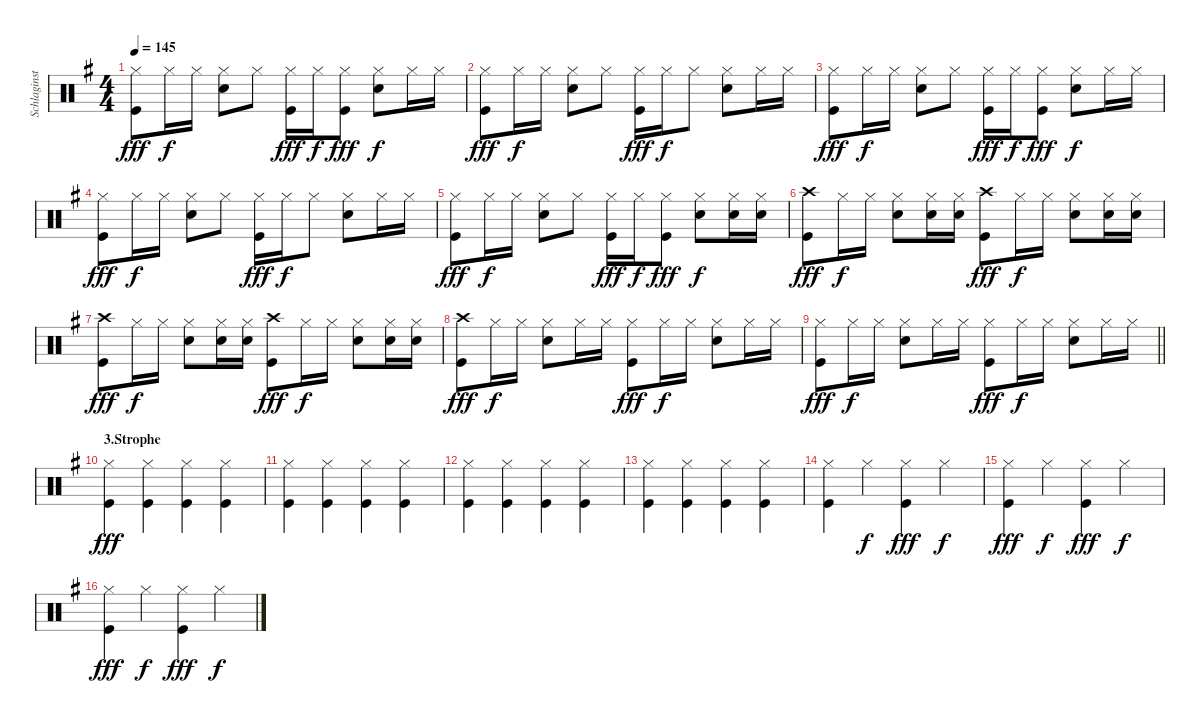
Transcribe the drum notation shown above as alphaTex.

\track ("Schlaginstrumente - Auswahl" "Schlaginst") {instrument percussion}
\staff {score}
\articulation defaults
\ts (4 4)
\tempo 145
\clef neutral
\ks eminor
("Hi-Hat (closed)" "Kick (hit)").8{dy fff} "Hi-Hat (closed)".16{dy f} "Hi-Hat (closed)".16 ("Hi-Hat (closed)" "Snare (hit) 2").8 "Hi-Hat (closed)".8 ("Hi-Hat (closed)" "Kick (hit)").16{dy fff} "Hi-Hat (closed)".16{dy f} ("Hi-Hat (closed)" "Kick (hit)").8{dy fff} ("Hi-Hat (closed)" "Snare (hit) 2").8{dy f} "Hi-Hat (closed)".16 "Hi-Hat (closed)".16 |
("Hi-Hat (closed)" "Kick (hit)").8{dy fff} "Hi-Hat (closed)".16{dy f} "Hi-Hat (closed)".16 ("Hi-Hat (closed)" "Snare (hit) 2").8 "Hi-Hat (closed)".8 ("Hi-Hat (closed)" "Kick (hit)").16{dy fff} "Hi-Hat (closed)".16{dy f} "Hi-Hat (closed)".8 ("Hi-Hat (closed)" "Snare (hit) 2").8 "Hi-Hat (closed)".16 "Hi-Hat (closed)".16 |
("Hi-Hat (closed)" "Kick (hit)").8{dy fff} "Hi-Hat (closed)".16{dy f} "Hi-Hat (closed)".16 ("Hi-Hat (closed)" "Snare (hit) 2").8 "Hi-Hat (closed)".8 ("Hi-Hat (closed)" "Kick (hit)").16{dy fff} "Hi-Hat (closed)".16{dy f} ("Hi-Hat (closed)" "Kick (hit)").8{dy fff} ("Hi-Hat (closed)" "Snare (hit) 2").8{dy f} "Hi-Hat (closed)".16 "Hi-Hat (closed)".16 |
("Hi-Hat (closed)" "Kick (hit)").8{dy fff} "Hi-Hat (closed)".16{dy f} "Hi-Hat (closed)".16 ("Hi-Hat (closed)" "Snare (hit) 2").8 "Hi-Hat (closed)".8 ("Hi-Hat (closed)" "Kick (hit)").16{dy fff} "Hi-Hat (closed)".16{dy f} "Hi-Hat (closed)".8 ("Hi-Hat (closed)" "Snare (hit) 2").8 "Hi-Hat (closed)".16 "Hi-Hat (closed)".16 |
("Hi-Hat (closed)" "Kick (hit)").8{dy fff} "Hi-Hat (closed)".16{dy f} "Hi-Hat (closed)".16 ("Hi-Hat (closed)" "Snare (hit) 2").8 "Hi-Hat (closed)".8 ("Hi-Hat (closed)" "Kick (hit)").16{dy fff} "Hi-Hat (closed)".16{dy f} ("Hi-Hat (closed)" "Kick (hit)").8{dy fff} ("Hi-Hat (closed)" "Snare (hit) 2").8{dy f} ("Hi-Hat (closed)" "Snare (hit) 2").16 ("Hi-Hat (closed)" "Snare (hit) 2").16 |
("Crash high (hit)" "Kick (hit)").8{dy fff} "Hi-Hat (closed)".16{dy f} "Hi-Hat (closed)".16 ("Hi-Hat (closed)" "Snare (hit) 2").8 ("Hi-Hat (closed)" "Snare (hit) 2").16 ("Hi-Hat (closed)" "Snare (hit) 2").16 ("Crash high (hit)" "Kick (hit)").8{dy fff} "Hi-Hat (closed)".16{dy f} "Hi-Hat (closed)".16 ("Hi-Hat (closed)" "Snare (hit) 2").8 ("Hi-Hat (closed)" "Snare (hit) 2").16 ("Hi-Hat (closed)" "Snare (hit) 2").16 |
("Crash high (hit)" "Kick (hit)").8{dy fff} "Hi-Hat (closed)".16{dy f} "Hi-Hat (closed)".16 ("Hi-Hat (closed)" "Snare (hit) 2").8 ("Hi-Hat (closed)" "Snare (hit) 2").16 ("Hi-Hat (closed)" "Snare (hit) 2").16 ("Crash high (hit)" "Kick (hit)").8{dy fff} "Hi-Hat (closed)".16{dy f} "Hi-Hat (closed)".16 ("Hi-Hat (closed)" "Snare (hit) 2").8 ("Hi-Hat (closed)" "Snare (hit) 2").16 ("Hi-Hat (closed)" "Snare (hit) 2").16 |
("Crash high (hit)" "Kick (hit)").8{dy fff} "Hi-Hat (closed)".16{dy f} "Hi-Hat (closed)".16 ("Hi-Hat (closed)" "Snare (hit) 2").8 "Hi-Hat (closed)".16 "Hi-Hat (closed)".16 ("Hi-Hat (closed)" "Kick (hit)").8{dy fff} "Hi-Hat (closed)".16{dy f} "Hi-Hat (closed)".16 ("Hi-Hat (closed)" "Snare (hit) 2").8 "Hi-Hat (closed)".16 "Hi-Hat (closed)".16 |
\barLineRight lightlight
("Hi-Hat (closed)" "Kick (hit)").8{dy fff} "Hi-Hat (closed)".16{dy f} "Hi-Hat (closed)".16 ("Hi-Hat (closed)" "Snare (hit) 2").8 "Hi-Hat (closed)".16 "Hi-Hat (closed)".16 ("Hi-Hat (closed)" "Kick (hit)").8{dy fff} "Hi-Hat (closed)".16{dy f} "Hi-Hat (closed)".16 ("Hi-Hat (closed)" "Snare (hit) 2").8 "Hi-Hat (closed)".16 "Hi-Hat (closed)".16 |
\section ("" "3.Strophe")
("Hi-Hat (closed)" "Kick (hit)").4{dy fff} ("Hi-Hat (closed)" "Kick (hit)").4 ("Hi-Hat (closed)" "Kick (hit)").4 ("Hi-Hat (closed)" "Kick (hit)").4 |
("Hi-Hat (closed)" "Kick (hit)").4 ("Hi-Hat (closed)" "Kick (hit)").4 ("Hi-Hat (closed)" "Kick (hit)").4 ("Hi-Hat (closed)" "Kick (hit)").4 |
("Hi-Hat (closed)" "Kick (hit)").4 ("Hi-Hat (closed)" "Kick (hit)").4 ("Hi-Hat (closed)" "Kick (hit)").4 ("Hi-Hat (closed)" "Kick (hit)").4 |
("Hi-Hat (closed)" "Kick (hit)").4 ("Hi-Hat (closed)" "Kick (hit)").4 ("Hi-Hat (closed)" "Kick (hit)").4 ("Hi-Hat (closed)" "Kick (hit)").4 |
("Hi-Hat (closed)" "Kick (hit)").4 "Hi-Hat (closed)".4{dy f} ("Hi-Hat (closed)" "Kick (hit)").4{dy fff} "Hi-Hat (closed)".4{dy f} |
("Hi-Hat (closed)" "Kick (hit)").4{dy fff} "Hi-Hat (closed)".4{dy f} ("Hi-Hat (closed)" "Kick (hit)").4{dy fff} "Hi-Hat (closed)".4{dy f} |
("Hi-Hat (closed)" "Kick (hit)").4{dy fff} "Hi-Hat (closed)".4{dy f} ("Hi-Hat (closed)" "Kick (hit)").4{dy fff} "Hi-Hat (closed)".4{dy f}
